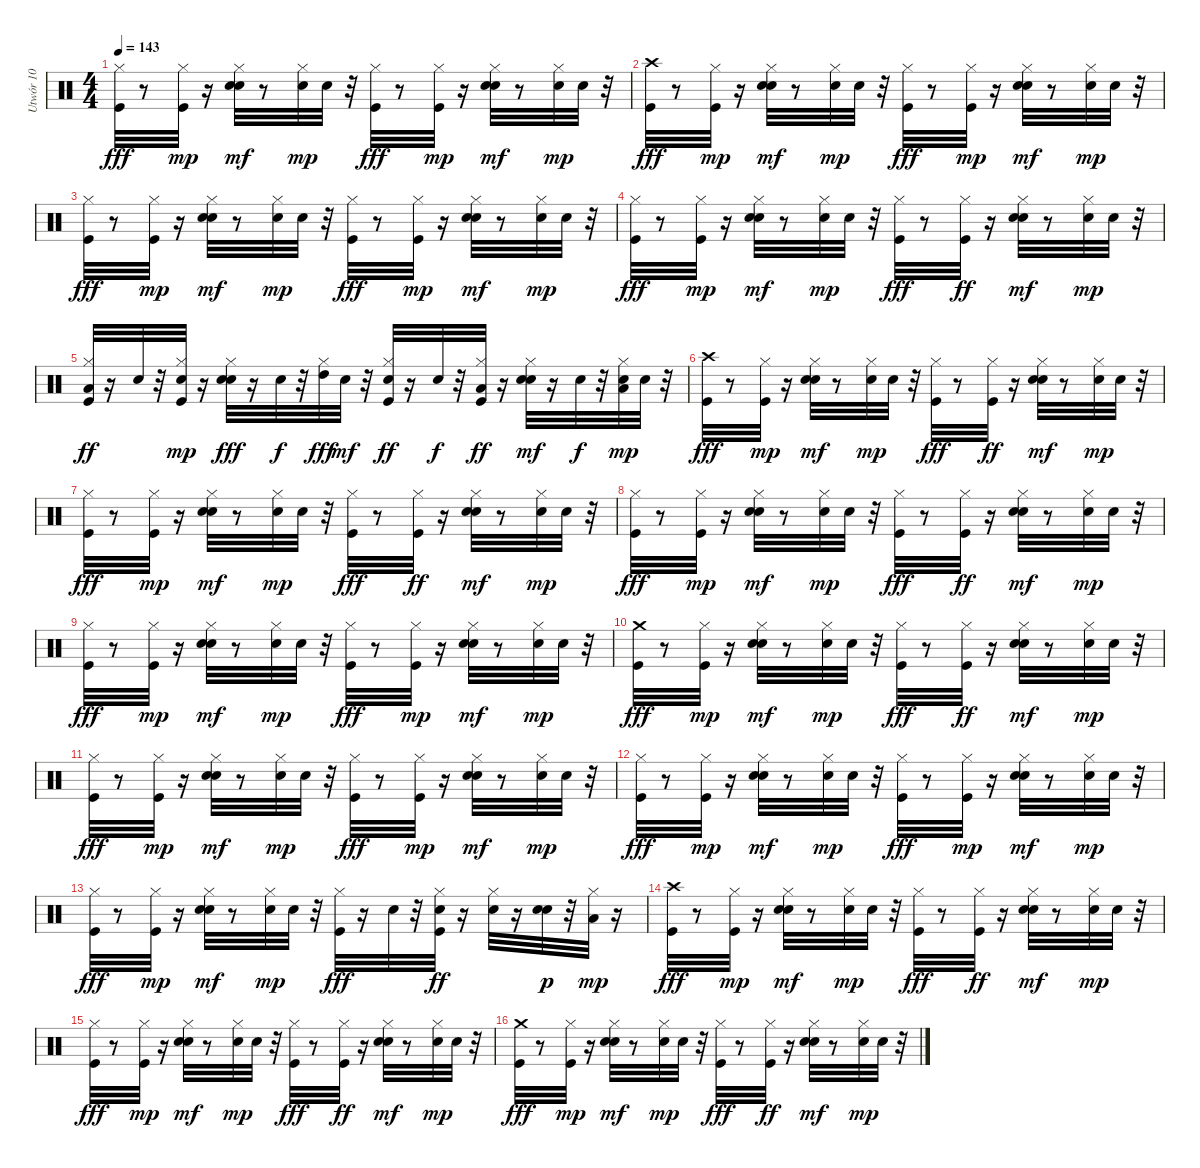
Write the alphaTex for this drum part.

\track ("Utwór 10" "Utwór 10") {instrument percussion}
\staff {score}
\articulation defaults
\ts (4 4)
\tempo 143
\clef neutral
\ks c
("Kick (hit)" "Hi-Hat (closed)").32{dy fff} r.8 ("Hi-Hat (closed)" "Kick (hit)").32{dy mp} r.16 ("Hi-Hat (closed)" "Snare (hit) 2" "Hand Clap (hit)").32{dy mf} r.8 ("Hi-Hat (closed)" "Snare (hit) 2").32{dy mp} "Hand Clap (hit)".32 r.32 ("Kick (hit)" "Hi-Hat (closed)").32{dy fff} r.8 ("Kick (hit)" "Hi-Hat (closed)").32{dy mp} r.16 ("Snare (hit) 2" "Hi-Hat (closed)" "Hand Clap (hit)").32{dy mf} r.8 ("Hi-Hat (closed)" "Snare (hit) 2").32{dy mp} "Hand Clap (hit)".32 r.32 |
("Crash high (hit)" "Kick (hit)").32{dy fff} r.8 ("Kick (hit)" "Hi-Hat (closed)").32{dy mp} r.16 ("Snare (hit) 2" "Hi-Hat (closed)" "Hand Clap (hit)").32{dy mf} r.8 ("Hi-Hat (closed)" "Snare (hit) 2").32{dy mp} "Hand Clap (hit)".32 r.32 ("Hi-Hat (closed)" "Kick (hit)").32{dy fff} r.8 ("Kick (hit)" "Hi-Hat (closed)").32{dy mp} r.16 ("Snare (hit) 2" "Hi-Hat (closed)" "Hand Clap (hit)").32{dy mf} r.8 ("Hi-Hat (closed)" "Snare (hit) 2").32{dy mp} "Hand Clap (hit)".32 r.32 |
("Kick (hit)" "Hi-Hat (closed)").32{dy fff} r.8 ("Hi-Hat (closed)" "Kick (hit)").32{dy mp} r.16 ("Hi-Hat (closed)" "Snare (hit) 2" "Hand Clap (hit)").32{dy mf} r.8 ("Snare (hit) 2" "Hi-Hat (closed)").32{dy mp} "Hand Clap (hit)".32 r.32 ("Kick (hit)" "Hi-Hat (closed)").32{dy fff} r.8 ("Kick (hit)" "Hi-Hat (closed)").32{dy mp} r.16 ("Hi-Hat (closed)" "Snare (hit) 2" "Hand Clap (hit)").32{dy mf} r.8 ("Hi-Hat (closed)" "Snare (hit) 2").32{dy mp} "Hand Clap (hit)".32 r.32 |
("Kick (hit)" "Hi-Hat (closed)").32{dy fff} r.8 ("Kick (hit)" "Hi-Hat (closed)").32{dy mp} r.16 ("Snare (hit) 2" "Hi-Hat (closed)" "Hand Clap (hit)").32{dy mf} r.8 ("Snare (hit) 2" "Hi-Hat (closed)").32{dy mp} "Hand Clap (hit)".32 r.32 ("Kick (hit)" "Hi-Hat (closed)").32{dy fff} r.8 ("Hi-Hat (closed)" "Kick (hit)").32{dy ff} r.16 ("Snare (hit) 2" "Hi-Hat (closed)" "Hand Clap (hit)").32{dy mf} r.8 ("Hi-Hat (closed)" "Snare (hit) 2").32{dy mp} "Hand Clap (hit)".32 r.32 |
("Kick (hit)" "Hi-Hat (closed)" "Low Tom (hit)").32{dy ff} r.16 "Snare (hit) 2".32 r.32 ("Snare (hit) 2" "Kick (hit)" "Hi-Hat (closed)").32{dy mp} r.16 ("Snare (hit) 2" "Hi-Hat (closed)" "Hand Clap (hit)").32{dy fff} r.16 "Snare (hit) 2".32{dy f} r.32 ("Hi-Hat (closed)" "High Tom (hit)").32{dy fff} "Hand Clap (hit)".32{dy mf} r.32 ("Kick (hit)" "Hi-Hat (closed)" "Snare (hit) 2").32{dy ff} r.16 "Snare (hit) 2".32{dy f} r.32 ("Kick (hit)" "Hi-Hat (closed)" "Low Tom (hit)").32{dy ff} r.16 ("Snare (hit) 2" "Hi-Hat (closed)" "Hand Clap (hit)").32{dy mf} r.16 "Snare (hit) 2".32{dy f} r.32 ("Snare (hit) 2" "Low Floor Tom (hit)" "Hi-Hat (closed)").32{dy mp} "Hand Clap (hit)".32 r.32 |
("Kick (hit)" "Crash high (hit)").32{dy fff} r.8 ("Hi-Hat (closed)" "Kick (hit)").32{dy mp} r.16 ("Snare (hit) 2" "Hi-Hat (closed)" "Hand Clap (hit)").32{dy mf} r.8 ("Snare (hit) 2" "Hi-Hat (closed)").32{dy mp} "Hand Clap (hit)".32 r.32 ("Hi-Hat (closed)" "Kick (hit)").32{dy fff} r.8 ("Hi-Hat (closed)" "Kick (hit)").32{dy ff} r.16 ("Hi-Hat (closed)" "Snare (hit) 2" "Hand Clap (hit)").32{dy mf} r.8 ("Hi-Hat (closed)" "Snare (hit) 2").32{dy mp} "Hand Clap (hit)".32 r.32 |
("Kick (hit)" "Hi-Hat (closed)").32{dy fff} r.8 ("Kick (hit)" "Hi-Hat (closed)").32{dy mp} r.16 ("Snare (hit) 2" "Hi-Hat (closed)" "Hand Clap (hit)").32{dy mf} r.8 ("Snare (hit) 2" "Hi-Hat (closed)").32{dy mp} "Hand Clap (hit)".32 r.32 ("Kick (hit)" "Hi-Hat (closed)").32{dy fff} r.8 ("Hi-Hat (closed)" "Kick (hit)").32{dy ff} r.16 ("Hi-Hat (closed)" "Snare (hit) 2" "Hand Clap (hit)").32{dy mf} r.8 ("Snare (hit) 2" "Hi-Hat (closed)").32{dy mp} "Hand Clap (hit)".32 r.32 |
("Hi-Hat (closed)" "Kick (hit)").32{dy fff} r.8 ("Kick (hit)" "Hi-Hat (closed)").32{dy mp} r.16 ("Snare (hit) 2" "Hi-Hat (closed)" "Hand Clap (hit)").32{dy mf} r.8 ("Hi-Hat (closed)" "Snare (hit) 2").32{dy mp} "Hand Clap (hit)".32 r.32 ("Hi-Hat (closed)" "Kick (hit)").32{dy fff} r.8 ("Hi-Hat (closed)" "Kick (hit)").32{dy ff} r.16 ("Hi-Hat (closed)" "Snare (hit) 2" "Hand Clap (hit)").32{dy mf} r.8 ("Snare (hit) 2" "Hi-Hat (closed)").32{dy mp} "Hand Clap (hit)".32 r.32 |
("Kick (hit)" "Hi-Hat (closed)").32{dy fff} r.8 ("Hi-Hat (closed)" "Kick (hit)").32{dy mp} r.16 ("Snare (hit) 2" "Hi-Hat (closed)" "Hand Clap (hit)").32{dy mf} r.8 ("Hi-Hat (closed)" "Snare (hit) 2").32{dy mp} "Hand Clap (hit)".32 r.32 ("Hi-Hat (closed)" "Kick (hit)").32{dy fff} r.8 ("Kick (hit)" "Hi-Hat (closed)").32{dy mp} r.16 ("Hi-Hat (closed)" "Snare (hit) 2" "Hand Clap (hit)").32{dy mf} r.8 ("Snare (hit) 2" "Hi-Hat (closed)").32{dy mp} "Hand Clap (hit)".32 r.32 |
("Crash medium (hit)" "Kick (hit)").32{dy fff} r.8 ("Hi-Hat (closed)" "Kick (hit)").32{dy mp} r.16 ("Snare (hit) 2" "Hi-Hat (closed)" "Hand Clap (hit)").32{dy mf} r.8 ("Hi-Hat (closed)" "Snare (hit) 2").32{dy mp} "Hand Clap (hit)".32 r.32 ("Hi-Hat (closed)" "Kick (hit)").32{dy fff} r.8 ("Hi-Hat (closed)" "Kick (hit)").32{dy ff} r.16 ("Snare (hit) 2" "Hi-Hat (closed)" "Hand Clap (hit)").32{dy mf} r.8 ("Snare (hit) 2" "Hi-Hat (closed)").32{dy mp} "Hand Clap (hit)".32 r.32 |
("Kick (hit)" "Hi-Hat (closed)").32{dy fff} r.8 ("Hi-Hat (closed)" "Kick (hit)").32{dy mp} r.16 ("Snare (hit) 2" "Hi-Hat (closed)" "Hand Clap (hit)").32{dy mf} r.8 ("Hi-Hat (closed)" "Snare (hit) 2").32{dy mp} "Hand Clap (hit)".32 r.32 ("Kick (hit)" "Hi-Hat (closed)").32{dy fff} r.8 ("Kick (hit)" "Hi-Hat (closed)").32{dy mp} r.16 ("Hi-Hat (closed)" "Snare (hit) 2" "Hand Clap (hit)").32{dy mf} r.8 ("Hi-Hat (closed)" "Snare (hit) 2").32{dy mp} "Hand Clap (hit)".32 r.32 |
("Hi-Hat (closed)" "Kick (hit)").32{dy fff} r.8 ("Kick (hit)" "Hi-Hat (closed)").32{dy mp} r.16 ("Snare (hit) 2" "Hi-Hat (closed)" "Hand Clap (hit)").32{dy mf} r.8 ("Snare (hit) 2" "Hi-Hat (closed)").32{dy mp} "Hand Clap (hit)".32 r.32 ("Hi-Hat (closed)" "Kick (hit)").32{dy fff} r.8 ("Kick (hit)" "Hi-Hat (closed)").32{dy mp} r.16 ("Snare (hit) 2" "Hi-Hat (closed)" "Hand Clap (hit)").32{dy mf} r.8 ("Hi-Hat (closed)" "Snare (hit) 2").32{dy mp} "Hand Clap (hit)".32 r.32 |
("Kick (hit)" "Hi-Hat (closed)").32{dy fff} r.8 ("Kick (hit)" "Hi-Hat (closed)").32{dy mp} r.16 ("Snare (hit) 2" "Hi-Hat (closed)" "Hand Clap (hit)").32{dy mf} r.8 ("Hi-Hat (closed)" "Snare (hit) 2").32{dy mp} "Hand Clap (hit)".32 r.32 ("Hi-Hat (closed)" "Kick (hit)").32{dy fff} r.16 "Snare (hit) 2".32 r.32 ("Snare (hit) 2" "Hi-Hat (closed)" "Kick (hit)").32{dy ff} r.16 ("Hi-Hat (closed)" "Snare (hit) 2").32 r.16 ("Snare (hit) 2" "Hand Clap (hit)").32{dy p} r.32 ("Hi-Hat (closed)" "Low Floor Tom (hit)").32{dy mp} r.16 |
("Kick (hit)" "Crash high (hit)").32{dy fff} r.8 ("Kick (hit)" "Hi-Hat (closed)").32{dy mp} r.16 ("Snare (hit) 2" "Hi-Hat (closed)" "Hand Clap (hit)").32{dy mf} r.8 ("Snare (hit) 2" "Hi-Hat (closed)").32{dy mp} "Hand Clap (hit)".32 r.32 ("Hi-Hat (closed)" "Kick (hit)").32{dy fff} r.8 ("Hi-Hat (closed)" "Kick (hit)").32{dy ff} r.16 ("Snare (hit) 2" "Hi-Hat (closed)" "Hand Clap (hit)").32{dy mf} r.8 ("Hi-Hat (closed)" "Snare (hit) 2").32{dy mp} "Hand Clap (hit)".32 r.32 |
("Kick (hit)" "Hi-Hat (closed)").32{dy fff} r.8 ("Hi-Hat (closed)" "Kick (hit)").32{dy mp} r.16 ("Hi-Hat (closed)" "Snare (hit) 2" "Hand Clap (hit)").32{dy mf} r.8 ("Snare (hit) 2" "Hi-Hat (closed)").32{dy mp} "Hand Clap (hit)".32 r.32 ("Kick (hit)" "Hi-Hat (closed)").32{dy fff} r.8 ("Hi-Hat (closed)" "Kick (hit)").32{dy ff} r.16 ("Hi-Hat (closed)" "Snare (hit) 2" "Hand Clap (hit)").32{dy mf} r.8 ("Snare (hit) 2" "Hi-Hat (closed)").32{dy mp} "Hand Clap (hit)".32 r.32 |
("Crash medium (hit)" "Kick (hit)").32{dy fff} r.8 ("Hi-Hat (closed)" "Kick (hit)").32{dy mp} r.16 ("Snare (hit) 2" "Hi-Hat (closed)" "Hand Clap (hit)").32{dy mf} r.8 ("Hi-Hat (closed)" "Snare (hit) 2").32{dy mp} "Hand Clap (hit)".32 r.32 ("Kick (hit)" "Hi-Hat (closed)").32{dy fff} r.8 ("Hi-Hat (closed)" "Kick (hit)").32{dy ff} r.16 ("Snare (hit) 2" "Hi-Hat (closed)" "Hand Clap (hit)").32{dy mf} r.8 ("Hi-Hat (closed)" "Snare (hit) 2").32{dy mp} "Hand Clap (hit)".32 r.32
